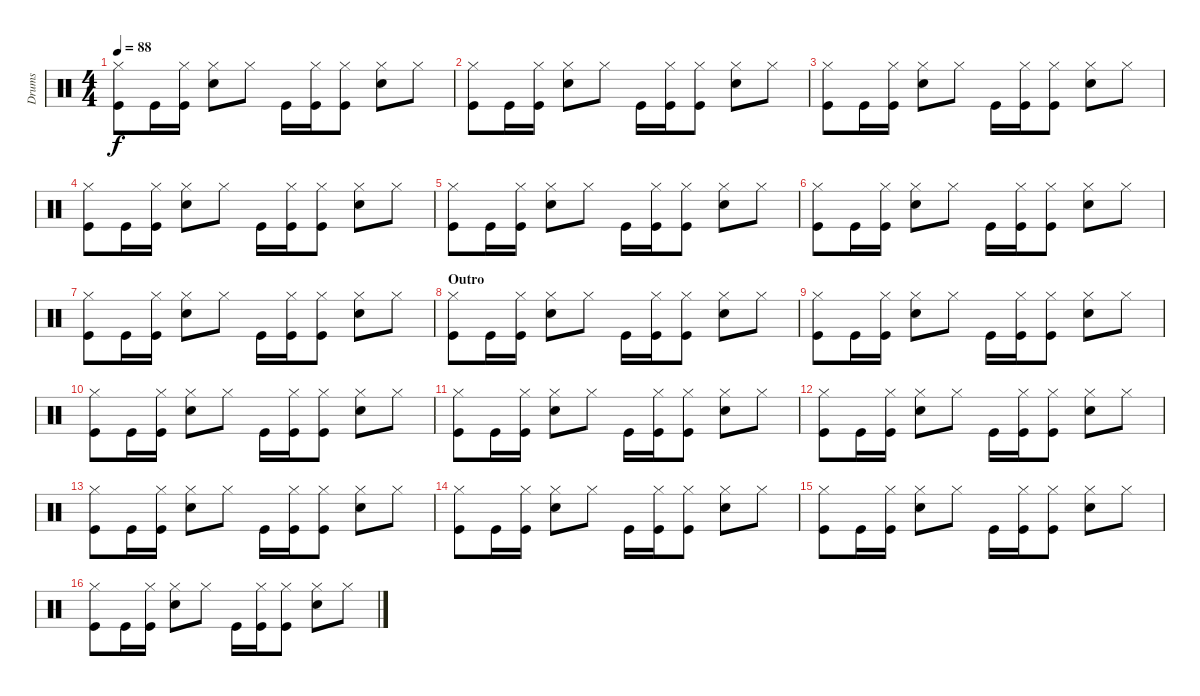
\track ("Drums" "Drums") {instrument percussion}
\staff {score}
\articulation defaults
\ts (4 4)
\tempo 88
\clef neutral
\ks c
("Hi-Hat (closed)" "Kick (hit)").8{dy f} "Kick (hit)".16 ("Hi-Hat (closed)" "Kick (hit)").16 ("Hi-Hat (closed)" "Snare (hit) 2").8 "Hi-Hat (closed)".8 "Kick (hit)".16 ("Hi-Hat (closed)" "Kick (hit)").16 ("Hi-Hat (closed)" "Kick (hit)").8 ("Hi-Hat (closed)" "Snare (hit) 2").8 "Hi-Hat (closed)".8 |
("Hi-Hat (closed)" "Kick (hit)").8 "Kick (hit)".16 ("Hi-Hat (closed)" "Kick (hit)").16 ("Hi-Hat (closed)" "Snare (hit) 2").8 "Hi-Hat (closed)".8 "Kick (hit)".16 ("Hi-Hat (closed)" "Kick (hit)").16 ("Hi-Hat (closed)" "Kick (hit)").8 ("Hi-Hat (closed)" "Snare (hit) 2").8 "Hi-Hat (closed)".8 |
("Hi-Hat (closed)" "Kick (hit)").8 "Kick (hit)".16 ("Hi-Hat (closed)" "Kick (hit)").16 ("Hi-Hat (closed)" "Snare (hit) 2").8 "Hi-Hat (closed)".8 "Kick (hit)".16 ("Hi-Hat (closed)" "Kick (hit)").16 ("Hi-Hat (closed)" "Kick (hit)").8 ("Hi-Hat (closed)" "Snare (hit) 2").8 "Hi-Hat (closed)".8 |
("Hi-Hat (closed)" "Kick (hit)").8 "Kick (hit)".16 ("Hi-Hat (closed)" "Kick (hit)").16 ("Hi-Hat (closed)" "Snare (hit) 2").8 "Hi-Hat (closed)".8 "Kick (hit)".16 ("Hi-Hat (closed)" "Kick (hit)").16 ("Hi-Hat (closed)" "Kick (hit)").8 ("Hi-Hat (closed)" "Snare (hit) 2").8 "Hi-Hat (closed)".8 |
("Hi-Hat (closed)" "Kick (hit)").8 "Kick (hit)".16 ("Hi-Hat (closed)" "Kick (hit)").16 ("Hi-Hat (closed)" "Snare (hit) 2").8 "Hi-Hat (closed)".8 "Kick (hit)".16 ("Hi-Hat (closed)" "Kick (hit)").16 ("Hi-Hat (closed)" "Kick (hit)").8 ("Hi-Hat (closed)" "Snare (hit) 2").8 "Hi-Hat (closed)".8 |
("Hi-Hat (closed)" "Kick (hit)").8 "Kick (hit)".16 ("Hi-Hat (closed)" "Kick (hit)").16 ("Hi-Hat (closed)" "Snare (hit) 2").8 "Hi-Hat (closed)".8 "Kick (hit)".16 ("Hi-Hat (closed)" "Kick (hit)").16 ("Hi-Hat (closed)" "Kick (hit)").8 ("Hi-Hat (closed)" "Snare (hit) 2").8 "Hi-Hat (closed)".8 |
("Hi-Hat (closed)" "Kick (hit)").8 "Kick (hit)".16 ("Hi-Hat (closed)" "Kick (hit)").16 ("Hi-Hat (closed)" "Snare (hit) 2").8 "Hi-Hat (closed)".8 "Kick (hit)".16 ("Hi-Hat (closed)" "Kick (hit)").16 ("Hi-Hat (closed)" "Kick (hit)").8 ("Hi-Hat (closed)" "Snare (hit) 2").8 "Hi-Hat (closed)".8 |
\section ("" "Outro")
("Hi-Hat (closed)" "Kick (hit)").8 "Kick (hit)".16 ("Hi-Hat (closed)" "Kick (hit)").16 ("Hi-Hat (closed)" "Snare (hit) 2").8 "Hi-Hat (closed)".8 "Kick (hit)".16 ("Hi-Hat (closed)" "Kick (hit)").16 ("Hi-Hat (closed)" "Kick (hit)").8 ("Hi-Hat (closed)" "Snare (hit) 2").8 "Hi-Hat (closed)".8 |
("Hi-Hat (closed)" "Kick (hit)").8 "Kick (hit)".16 ("Hi-Hat (closed)" "Kick (hit)").16 ("Hi-Hat (closed)" "Snare (hit) 2").8 "Hi-Hat (closed)".8 "Kick (hit)".16 ("Hi-Hat (closed)" "Kick (hit)").16 ("Hi-Hat (closed)" "Kick (hit)").8 ("Hi-Hat (closed)" "Snare (hit) 2").8 "Hi-Hat (closed)".8 |
("Hi-Hat (closed)" "Kick (hit)").8 "Kick (hit)".16 ("Hi-Hat (closed)" "Kick (hit)").16 ("Hi-Hat (closed)" "Snare (hit) 2").8 "Hi-Hat (closed)".8 "Kick (hit)".16 ("Hi-Hat (closed)" "Kick (hit)").16 ("Hi-Hat (closed)" "Kick (hit)").8 ("Hi-Hat (closed)" "Snare (hit) 2").8 "Hi-Hat (closed)".8 |
("Hi-Hat (closed)" "Kick (hit)").8 "Kick (hit)".16 ("Hi-Hat (closed)" "Kick (hit)").16 ("Hi-Hat (closed)" "Snare (hit) 2").8 "Hi-Hat (closed)".8 "Kick (hit)".16 ("Hi-Hat (closed)" "Kick (hit)").16 ("Hi-Hat (closed)" "Kick (hit)").8 ("Hi-Hat (closed)" "Snare (hit) 2").8 "Hi-Hat (closed)".8 |
("Hi-Hat (closed)" "Kick (hit)").8 "Kick (hit)".16 ("Hi-Hat (closed)" "Kick (hit)").16 ("Hi-Hat (closed)" "Snare (hit) 2").8 "Hi-Hat (closed)".8 "Kick (hit)".16 ("Hi-Hat (closed)" "Kick (hit)").16 ("Hi-Hat (closed)" "Kick (hit)").8 ("Hi-Hat (closed)" "Snare (hit) 2").8 "Hi-Hat (closed)".8 |
("Hi-Hat (closed)" "Kick (hit)").8 "Kick (hit)".16 ("Hi-Hat (closed)" "Kick (hit)").16 ("Hi-Hat (closed)" "Snare (hit) 2").8 "Hi-Hat (closed)".8 "Kick (hit)".16 ("Hi-Hat (closed)" "Kick (hit)").16 ("Hi-Hat (closed)" "Kick (hit)").8 ("Hi-Hat (closed)" "Snare (hit) 2").8 "Hi-Hat (closed)".8 |
("Hi-Hat (closed)" "Kick (hit)").8 "Kick (hit)".16 ("Hi-Hat (closed)" "Kick (hit)").16 ("Hi-Hat (closed)" "Snare (hit) 2").8 "Hi-Hat (closed)".8 "Kick (hit)".16 ("Hi-Hat (closed)" "Kick (hit)").16 ("Hi-Hat (closed)" "Kick (hit)").8 ("Hi-Hat (closed)" "Snare (hit) 2").8 "Hi-Hat (closed)".8 |
("Hi-Hat (closed)" "Kick (hit)").8 "Kick (hit)".16 ("Hi-Hat (closed)" "Kick (hit)").16 ("Hi-Hat (closed)" "Snare (hit) 2").8 "Hi-Hat (closed)".8 "Kick (hit)".16 ("Hi-Hat (closed)" "Kick (hit)").16 ("Hi-Hat (closed)" "Kick (hit)").8 ("Hi-Hat (closed)" "Snare (hit) 2").8 "Hi-Hat (closed)".8 |
("Hi-Hat (closed)" "Kick (hit)").8 "Kick (hit)".16 ("Hi-Hat (closed)" "Kick (hit)").16 ("Hi-Hat (closed)" "Snare (hit) 2").8 "Hi-Hat (closed)".8 "Kick (hit)".16 ("Hi-Hat (closed)" "Kick (hit)").16 ("Hi-Hat (closed)" "Kick (hit)").8 ("Hi-Hat (closed)" "Snare (hit) 2").8 "Hi-Hat (closed)".8
